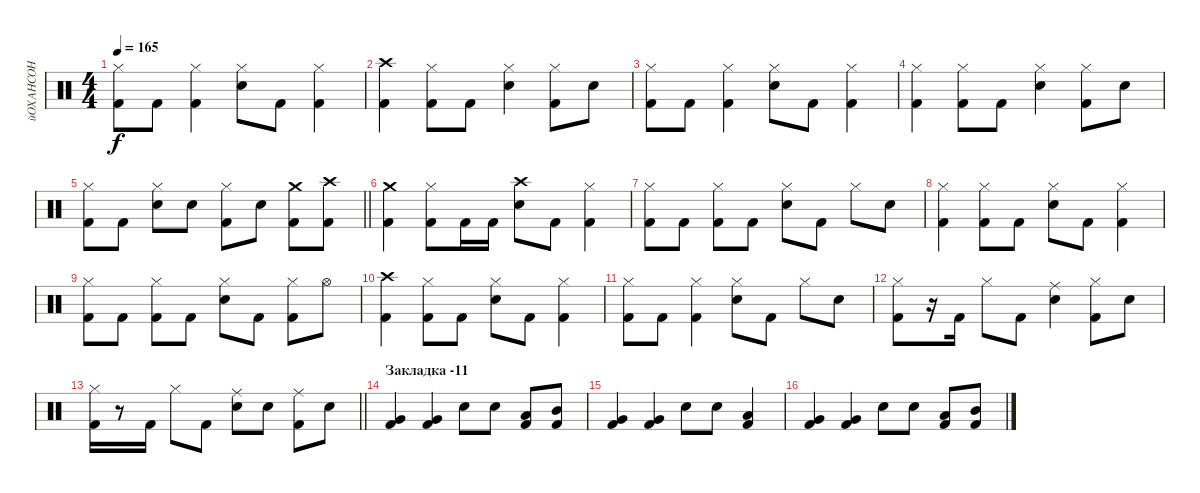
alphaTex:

\track ("йОХАНСОН" "йОХАНСОН") {instrument percussion}
\staff {score}
\articulation defaults
\ts (4 4)
\tempo 165
\clef neutral
\ks c
("Hi-Hat (closed)" "Kick (hit) 2").8{dy f} "Kick (hit) 2".8 ("Hi-Hat (closed)" "Kick (hit) 2").4 ("Hi-Hat (closed)" "Snare (hit) 2").8 "Kick (hit) 2".8 ("Hi-Hat (closed)" "Kick (hit) 2").4 |
("Crash high (hit)" "Kick (hit) 2").4 ("Hi-Hat (closed)" "Kick (hit) 2").8 "Kick (hit) 2".8 ("Hi-Hat (closed)" "Snare (hit) 2").4 ("Hi-Hat (closed)" "Kick (hit) 2").8 "Snare (hit) 2".8 |
("Hi-Hat (closed)" "Kick (hit) 2").8 "Kick (hit) 2".8 ("Hi-Hat (closed)" "Kick (hit) 2").4 ("Hi-Hat (closed)" "Snare (hit) 2").8 "Kick (hit) 2".8 ("Hi-Hat (closed)" "Kick (hit) 2").4 |
("Hi-Hat (closed)" "Kick (hit) 2").4 ("Hi-Hat (closed)" "Kick (hit) 2").8 "Kick (hit) 2".8 ("Hi-Hat (closed)" "Snare (hit) 2").4 ("Hi-Hat (closed)" "Kick (hit) 2").8 "Snare (hit) 2".8 |
\barLineRight lightlight
("Hi-Hat (closed)" "Kick (hit) 2").8 "Kick (hit) 2".8 ("Hi-Hat (closed)" "Snare (hit) 2").8 "Snare (hit) 2".8 ("Hi-Hat (closed)" "Kick (hit) 2").8 "Snare (hit) 2".8 ("Crash medium (hit)" "Kick (hit) 2").8 ("Crash high (hit)" "Kick (hit) 2").8 |
("Crash medium (hit)" "Kick (hit) 2").4 ("Hi-Hat (closed)" "Kick (hit) 2").8 "Kick (hit) 2".16 "Kick (hit) 2".16 ("Crash high (hit)" "Snare (hit) 2").8 "Kick (hit) 2".8 ("Hi-Hat (closed)" "Kick (hit) 2").4 |
("Hi-Hat (closed)" "Kick (hit) 2").8 "Kick (hit) 2".8 ("Hi-Hat (closed)" "Kick (hit) 2").8 "Kick (hit) 2".8 ("Hi-Hat (closed)" "Snare (hit) 2").8 "Kick (hit) 2".8 "Hi-Hat (closed)".8 "Snare (hit) 2".8 |
("Hi-Hat (closed)" "Kick (hit) 2").4 ("Hi-Hat (closed)" "Kick (hit) 2").8 "Kick (hit) 2".8 ("Hi-Hat (closed)" "Snare (hit) 2").8 "Kick (hit) 2".8 ("Hi-Hat (closed)" "Kick (hit) 2").4 |
("Hi-Hat (closed)" "Kick (hit) 2").8 "Kick (hit) 2".8 ("Hi-Hat (closed)" "Kick (hit) 2").8 "Kick (hit) 2".8 ("Hi-Hat (closed)" "Snare (hit) 2").8 "Kick (hit) 2".8 ("Hi-Hat (closed)" "Kick (hit) 2").8 "Hi-Hat (open)".8 |
("Crash high (hit)" "Kick (hit) 2").4 ("Hi-Hat (closed)" "Kick (hit) 2").8 "Kick (hit) 2".8 ("Hi-Hat (closed)" "Snare (hit) 2").8 "Kick (hit) 2".8 ("Hi-Hat (closed)" "Kick (hit) 2").4 |
("Hi-Hat (closed)" "Kick (hit) 2").8 "Kick (hit) 2".8 ("Hi-Hat (closed)" "Kick (hit) 2").4 ("Hi-Hat (closed)" "Snare (hit) 2").8 "Kick (hit) 2".8 "Hi-Hat (closed)".8 "Snare (hit) 2".8 |
("Hi-Hat (closed)" "Kick (hit) 2").8 r.16 "Kick (hit) 2".16 "Hi-Hat (closed)".8 "Kick (hit) 2".8 ("Ride (middle)" "Snare (hit) 2").4 ("Hi-Hat (closed)" "Kick (hit) 2").8 "Snare (hit) 2".8 |
\barLineRight lightlight
("Hi-Hat (closed)" "Kick (hit) 2").16 r.8 "Kick (hit) 2".16 "Hi-Hat (closed)".8 "Kick (hit) 2".8 ("Ride (middle)" "Snare (hit) 2").8 "Snare (hit) 2".8 ("Ride (middle)" "Kick (hit) 2").8 "Snare (hit) 2".8 |
\section ("" "Закладка -11")
("Very Low Tom (hit)" "Kick (hit) 2").4 ("Very Low Tom (hit)" "Kick (hit) 2").4 "Snare (hit) 2".8 "Snare (hit) 2".8 ("Low Tom (hit)" "Kick (hit) 2").8 ("Mid Tom (hit)" "Kick (hit) 2").8 |
("Very Low Tom (hit)" "Kick (hit) 2").4 ("Very Low Tom (hit)" "Kick (hit) 2").4 "Snare (hit) 2".8 "Snare (hit) 2".8 ("Low Tom (hit)" "Kick (hit) 2").4 |
("Very Low Tom (hit)" "Kick (hit) 2").4 ("Very Low Tom (hit)" "Kick (hit) 2").4 "Snare (hit) 2".8 "Snare (hit) 2".8 ("Low Tom (hit)" "Kick (hit) 2").8 ("Mid Tom (hit)" "Kick (hit) 2").8
